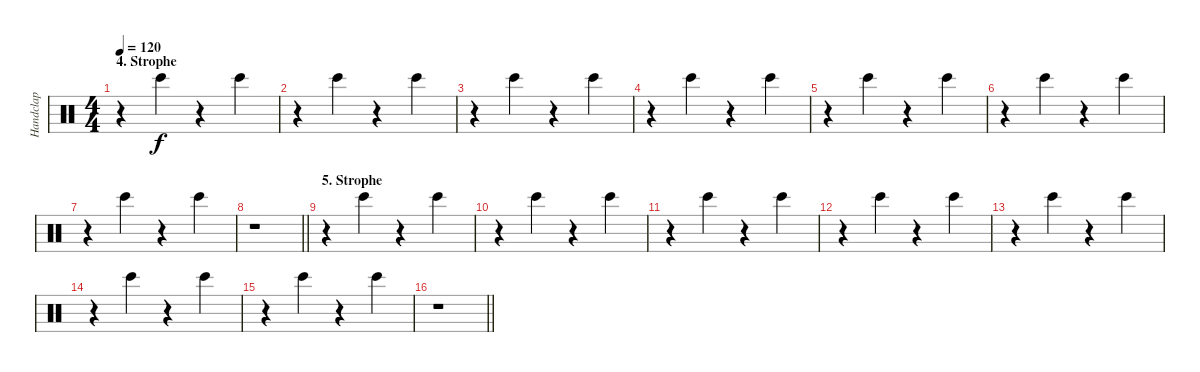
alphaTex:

\track ("Handclap" "Handclap") {instrument percussion}
\staff {score}
\articulation defaults
\ts (4 4)
\section ("" "4. Strophe")
\tempo 120
\clef neutral
\ks c
r.4{dy f} "Bongo High (hit)".4 r.4 "Bongo High (hit)".4 |
r.4 "Bongo High (hit)".4 r.4 "Bongo High (hit)".4 |
r.4 "Bongo High (hit)".4 r.4 "Bongo High (hit)".4 |
r.4 "Bongo High (hit)".4 r.4 "Bongo High (hit)".4 |
r.4 "Bongo High (hit)".4 r.4 "Bongo High (hit)".4 |
r.4 "Bongo High (hit)".4 r.4 "Bongo High (hit)".4 |
r.4 "Bongo High (hit)".4 r.4 "Bongo High (hit)".4 |
\barLineRight lightlight
r.1 |
\section ("" "5. Strophe")
r.4 "Bongo High (hit)".4 r.4 "Bongo High (hit)".4 |
r.4 "Bongo High (hit)".4 r.4 "Bongo High (hit)".4 |
r.4 "Bongo High (hit)".4 r.4 "Bongo High (hit)".4 |
r.4 "Bongo High (hit)".4 r.4 "Bongo High (hit)".4 |
r.4 "Bongo High (hit)".4 r.4 "Bongo High (hit)".4 |
r.4 "Bongo High (hit)".4 r.4 "Bongo High (hit)".4 |
r.4 "Bongo High (hit)".4 r.4 "Bongo High (hit)".4 |
\barLineRight lightlight
r.1
